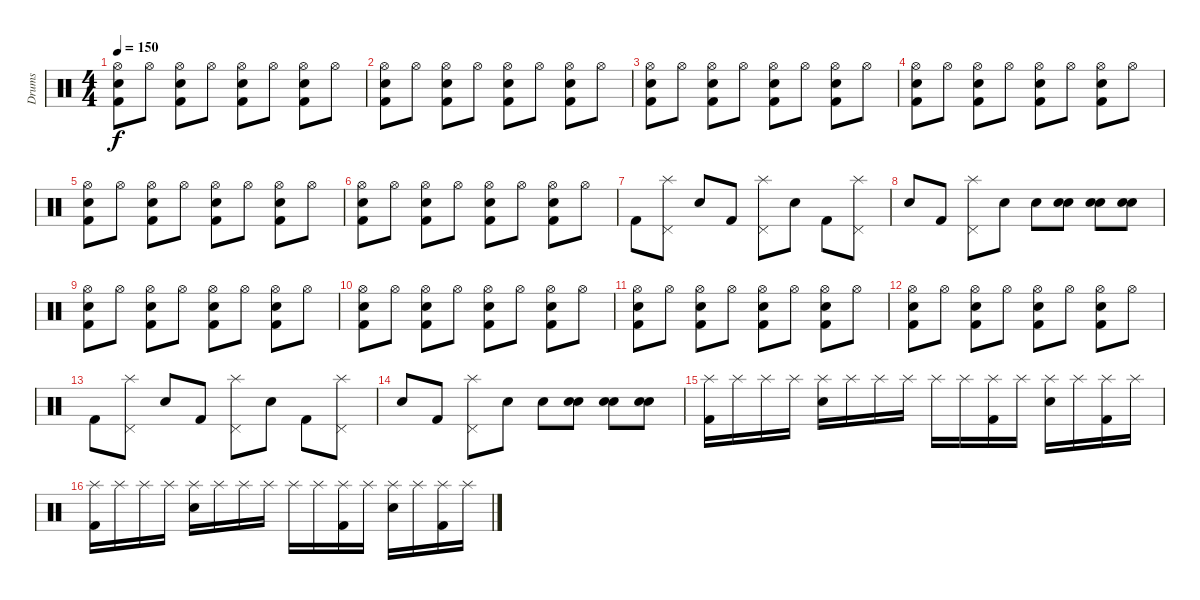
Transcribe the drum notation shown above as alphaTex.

\track ("Drums" "Drums") {instrument percussion}
\staff {score}
\articulation defaults
\ts (4 4)
\tempo 150
\clef neutral
\ks c
("Hi-Hat (open)" "Snare (hit) 2" "Kick (hit) 2").8{dy f} "Hi-Hat (open)".8 ("Hi-Hat (open)" "Snare (hit) 2" "Kick (hit) 2").8 "Hi-Hat (open)".8 ("Hi-Hat (open)" "Snare (hit) 2" "Kick (hit) 2").8 "Hi-Hat (open)".8 ("Hi-Hat (open)" "Snare (hit) 2" "Kick (hit) 2").8 "Hi-Hat (open)".8 |
("Hi-Hat (open)" "Snare (hit) 2" "Kick (hit) 2").8 "Hi-Hat (open)".8 ("Hi-Hat (open)" "Snare (hit) 2" "Kick (hit) 2").8 "Hi-Hat (open)".8 ("Hi-Hat (open)" "Snare (hit) 2" "Kick (hit) 2").8 "Hi-Hat (open)".8 ("Hi-Hat (open)" "Snare (hit) 2" "Kick (hit) 2").8 "Hi-Hat (open)".8 |
("Hi-Hat (open)" "Snare (hit) 2" "Kick (hit) 2").8 "Hi-Hat (open)".8 ("Hi-Hat (open)" "Snare (hit) 2" "Kick (hit) 2").8 "Hi-Hat (open)".8 ("Hi-Hat (open)" "Snare (hit) 2" "Kick (hit) 2").8 "Hi-Hat (open)".8 ("Hi-Hat (open)" "Snare (hit) 2" "Kick (hit) 2").8 "Hi-Hat (open)".8 |
("Hi-Hat (open)" "Snare (hit) 2" "Kick (hit) 2").8 "Hi-Hat (open)".8 ("Hi-Hat (open)" "Snare (hit) 2" "Kick (hit) 2").8 "Hi-Hat (open)".8 ("Hi-Hat (open)" "Snare (hit) 2" "Kick (hit) 2").8 "Hi-Hat (open)".8 ("Hi-Hat (open)" "Snare (hit) 2" "Kick (hit) 2").8 "Hi-Hat (open)".8 |
("Hi-Hat (open)" "Snare (hit) 2" "Kick (hit) 2").8 "Hi-Hat (open)".8 ("Hi-Hat (open)" "Snare (hit) 2" "Kick (hit) 2").8 "Hi-Hat (open)".8 ("Hi-Hat (open)" "Snare (hit) 2" "Kick (hit) 2").8 "Hi-Hat (open)".8 ("Hi-Hat (open)" "Snare (hit) 2" "Kick (hit) 2").8 "Hi-Hat (open)".8 |
("Hi-Hat (open)" "Snare (hit) 2" "Kick (hit) 2").8 "Hi-Hat (open)".8 ("Hi-Hat (open)" "Snare (hit) 2" "Kick (hit) 2").8 "Hi-Hat (open)".8 ("Hi-Hat (open)" "Snare (hit) 2" "Kick (hit) 2").8 "Hi-Hat (open)".8 ("Hi-Hat (open)" "Snare (hit) 2" "Kick (hit) 2").8 "Hi-Hat (open)".8 |
"Kick (hit) 2".8 ("Splash (hit)" "Pedal Hi-Hat (hit)").8 "Snare (hit) 2".8 "Kick (hit) 2".8 ("Pedal Hi-Hat (hit)" "Splash (hit)").8 "Snare (hit) 2".8 "Kick (hit) 2".8 ("Splash (hit)" "Pedal Hi-Hat (hit)").8 |
"Snare (hit) 2".8 "Kick (hit) 2".8 ("Pedal Hi-Hat (hit)" "Splash (hit)").8 "Snare (hit) 2".8 "Snare (hit) 2".8 ("Snare (hit) 2" "Snare (hit) 2").8 ("Snare (hit) 2" "Snare (hit) 2").8 ("Snare (hit) 2" "Snare (hit) 2").8 |
("Hi-Hat (open)" "Snare (hit) 2" "Kick (hit) 2").8 "Hi-Hat (open)".8 ("Hi-Hat (open)" "Snare (hit) 2" "Kick (hit) 2").8 "Hi-Hat (open)".8 ("Hi-Hat (open)" "Snare (hit) 2" "Kick (hit) 2").8 "Hi-Hat (open)".8 ("Hi-Hat (open)" "Snare (hit) 2" "Kick (hit) 2").8 "Hi-Hat (open)".8 |
("Hi-Hat (open)" "Snare (hit) 2" "Kick (hit) 2").8 "Hi-Hat (open)".8 ("Hi-Hat (open)" "Snare (hit) 2" "Kick (hit) 2").8 "Hi-Hat (open)".8 ("Hi-Hat (open)" "Snare (hit) 2" "Kick (hit) 2").8 "Hi-Hat (open)".8 ("Hi-Hat (open)" "Snare (hit) 2" "Kick (hit) 2").8 "Hi-Hat (open)".8 |
("Hi-Hat (open)" "Snare (hit) 2" "Kick (hit) 2").8 "Hi-Hat (open)".8 ("Hi-Hat (open)" "Snare (hit) 2" "Kick (hit) 2").8 "Hi-Hat (open)".8 ("Hi-Hat (open)" "Snare (hit) 2" "Kick (hit) 2").8 "Hi-Hat (open)".8 ("Hi-Hat (open)" "Snare (hit) 2" "Kick (hit) 2").8 "Hi-Hat (open)".8 |
("Hi-Hat (open)" "Snare (hit) 2" "Kick (hit) 2").8 "Hi-Hat (open)".8 ("Hi-Hat (open)" "Snare (hit) 2" "Kick (hit) 2").8 "Hi-Hat (open)".8 ("Hi-Hat (open)" "Snare (hit) 2" "Kick (hit) 2").8 "Hi-Hat (open)".8 ("Hi-Hat (open)" "Snare (hit) 2" "Kick (hit) 2").8 "Hi-Hat (open)".8 |
"Kick (hit) 2".8 ("Splash (hit)" "Pedal Hi-Hat (hit)").8 "Snare (hit) 2".8 "Kick (hit) 2".8 ("Pedal Hi-Hat (hit)" "Splash (hit)").8 "Snare (hit) 2".8 "Kick (hit) 2".8 ("Splash (hit)" "Pedal Hi-Hat (hit)").8 |
"Snare (hit) 2".8 "Kick (hit) 2".8 ("Pedal Hi-Hat (hit)" "Splash (hit)").8 "Snare (hit) 2".8 "Snare (hit) 2".8 ("Snare (hit) 2" "Snare (hit) 2").8 ("Snare (hit) 2" "Snare (hit) 2").8 ("Snare (hit) 2" "Snare (hit) 2").8 |
("Splash (hit)" "Kick (hit) 2").16 "Splash (hit)".16 "Splash (hit)".16 "Splash (hit)".16 ("Splash (hit)" "Snare (hit) 2").16 "Splash (hit)".16 "Splash (hit)".16 "Splash (hit)".16 "Splash (hit)".16 "Splash (hit)".16 ("Splash (hit)" "Kick (hit) 2").16 "Splash (hit)".16 ("Splash (hit)" "Snare (hit) 2").16 "Splash (hit)".16 ("Splash (hit)" "Kick (hit) 2").16 "Splash (hit)".16 |
("Splash (hit)" "Kick (hit) 2").16 "Splash (hit)".16 "Splash (hit)".16 "Splash (hit)".16 ("Splash (hit)" "Snare (hit) 2").16 "Splash (hit)".16 "Splash (hit)".16 "Splash (hit)".16 "Splash (hit)".16 "Splash (hit)".16 ("Splash (hit)" "Kick (hit) 2").16 "Splash (hit)".16 ("Splash (hit)" "Snare (hit) 2").16 "Splash (hit)".16 ("Splash (hit)" "Kick (hit) 2").16 "Splash (hit)".16
